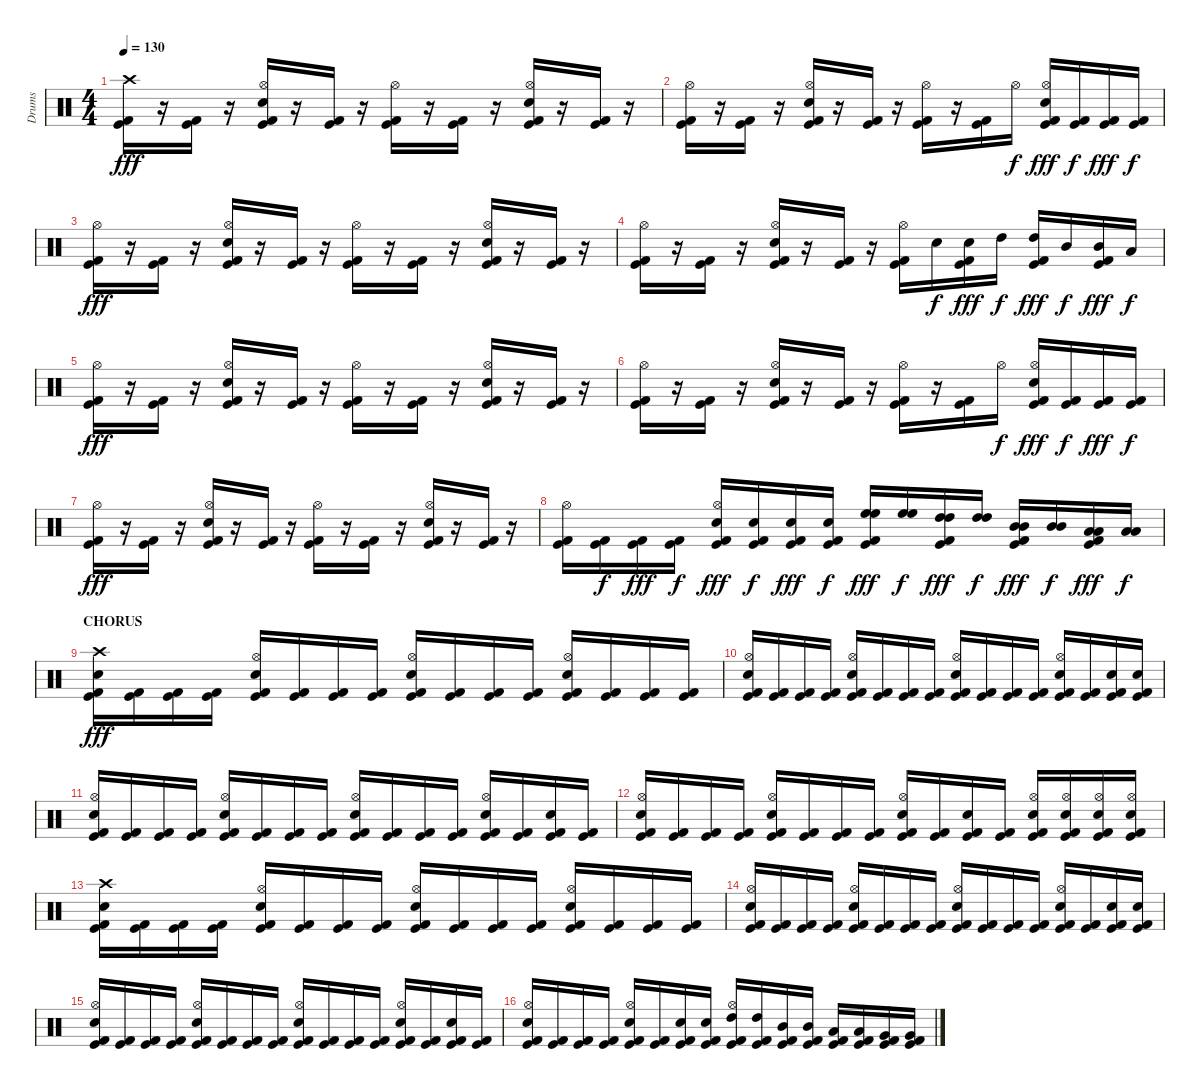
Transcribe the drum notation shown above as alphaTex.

\track ("Drums" "Drums") {instrument percussion}
\staff {score}
\articulation defaults
\ts (4 4)
\tempo 130
\clef neutral
\ks c
("Crash high (hit)" "Kick (hit)" "Kick (hit) 2").16{dy fff} r.16 ("Kick (hit)" "Kick (hit) 2").16 r.16 ("Hi-Hat (open)" "Electric Snare (hit)" "Kick (hit)" "Kick (hit) 2").16 r.16 ("Kick (hit)" "Kick (hit) 2").16 r.16 ("Hi-Hat (open)" "Kick (hit)" "Kick (hit) 2").16 r.16 ("Kick (hit)" "Kick (hit) 2").16 r.16 ("Hi-Hat (open)" "Electric Snare (hit)" "Kick (hit)" "Kick (hit) 2").16 r.16 ("Kick (hit)" "Kick (hit) 2").16 r.16 |
("Hi-Hat (open)" "Kick (hit)" "Kick (hit) 2").16 r.16 ("Kick (hit)" "Kick (hit) 2").16 r.16 ("Hi-Hat (open)" "Electric Snare (hit)" "Kick (hit)" "Kick (hit) 2").16 r.16 ("Kick (hit)" "Kick (hit) 2").16 r.16 ("Hi-Hat (open)" "Kick (hit)" "Kick (hit) 2").16 r.16 ("Kick (hit)" "Kick (hit) 2").16 "Hi-Hat (open)".16{dy f} ("Hi-Hat (open)" "Electric Snare (hit)" "Kick (hit)" "Kick (hit) 2").16{dy fff} ("Kick (hit)" "Kick (hit) 2").16{dy f} ("Kick (hit)" "Kick (hit) 2").16{dy fff} ("Kick (hit)" "Kick (hit) 2").16{dy f} |
("Hi-Hat (open)" "Kick (hit)" "Kick (hit) 2").16{dy fff} r.16 ("Kick (hit)" "Kick (hit) 2").16 r.16 ("Hi-Hat (open)" "Electric Snare (hit)" "Kick (hit)" "Kick (hit) 2").16 r.16 ("Kick (hit)" "Kick (hit) 2").16 r.16 ("Hi-Hat (open)" "Kick (hit)" "Kick (hit) 2").16 r.16 ("Kick (hit)" "Kick (hit) 2").16 r.16 ("Hi-Hat (open)" "Electric Snare (hit)" "Kick (hit)" "Kick (hit) 2").16 r.16 ("Kick (hit)" "Kick (hit) 2").16 r.16 |
("Hi-Hat (open)" "Kick (hit)" "Kick (hit) 2").16 r.16 ("Kick (hit)" "Kick (hit) 2").16 r.16 ("Hi-Hat (open)" "Electric Snare (hit)" "Kick (hit)" "Kick (hit) 2").16 r.16 ("Kick (hit)" "Kick (hit) 2").16 r.16 ("Hi-Hat (open)" "Kick (hit)" "Kick (hit) 2").16 "Electric Snare (hit)".16{dy f} ("Electric Snare (hit)" "Kick (hit)" "Kick (hit) 2").16{dy fff} "High Tom (hit)".16{dy f} ("High Tom (hit)" "Kick (hit)" "Kick (hit) 2").16{dy fff} "Mid Tom (hit)".16{dy f} ("Mid Tom (hit)" "Kick (hit)" "Kick (hit) 2").16{dy fff} "Low Tom (hit)".16{dy f} |
("Hi-Hat (open)" "Kick (hit)" "Kick (hit) 2").16{dy fff} r.16 ("Kick (hit)" "Kick (hit) 2").16 r.16 ("Hi-Hat (open)" "Electric Snare (hit)" "Kick (hit)" "Kick (hit) 2").16 r.16 ("Kick (hit)" "Kick (hit) 2").16 r.16 ("Hi-Hat (open)" "Kick (hit)" "Kick (hit) 2").16 r.16 ("Kick (hit)" "Kick (hit) 2").16 r.16 ("Hi-Hat (open)" "Electric Snare (hit)" "Kick (hit)" "Kick (hit) 2").16 r.16 ("Kick (hit)" "Kick (hit) 2").16 r.16 |
("Hi-Hat (open)" "Kick (hit)" "Kick (hit) 2").16 r.16 ("Kick (hit)" "Kick (hit) 2").16 r.16 ("Hi-Hat (open)" "Electric Snare (hit)" "Kick (hit)" "Kick (hit) 2").16 r.16 ("Kick (hit)" "Kick (hit) 2").16 r.16 ("Hi-Hat (open)" "Kick (hit)" "Kick (hit) 2").16 r.16 ("Kick (hit)" "Kick (hit) 2").16 "Hi-Hat (open)".16{dy f} ("Hi-Hat (open)" "Electric Snare (hit)" "Kick (hit)" "Kick (hit) 2").16{dy fff} ("Kick (hit)" "Kick (hit) 2").16{dy f} ("Kick (hit)" "Kick (hit) 2").16{dy fff} ("Kick (hit)" "Kick (hit) 2").16{dy f} |
("Hi-Hat (open)" "Kick (hit)" "Kick (hit) 2").16{dy fff} r.16 ("Kick (hit)" "Kick (hit) 2").16 r.16 ("Hi-Hat (open)" "Electric Snare (hit)" "Kick (hit)" "Kick (hit) 2").16 r.16 ("Kick (hit)" "Kick (hit) 2").16 r.16 ("Hi-Hat (open)" "Kick (hit)" "Kick (hit) 2").16 r.16 ("Kick (hit)" "Kick (hit) 2").16 r.16 ("Hi-Hat (open)" "Electric Snare (hit)" "Kick (hit)" "Kick (hit) 2").16 r.16 ("Kick (hit)" "Kick (hit) 2").16 r.16 |
("Hi-Hat (open)" "Kick (hit)" "Kick (hit) 2").16 ("Kick (hit)" "Kick (hit) 2").16{dy f} ("Kick (hit)" "Kick (hit) 2").16{dy fff} ("Kick (hit)" "Kick (hit) 2").16{dy f} ("Hi-Hat (open)" "Electric Snare (hit)" "Kick (hit)" "Kick (hit) 2").16{dy fff} ("Electric Snare (hit)" "Kick (hit)" "Kick (hit) 2").16{dy f} ("Electric Snare (hit)" "Kick (hit)" "Kick (hit) 2").16{dy fff} ("Electric Snare (hit)" "Kick (hit)" "Kick (hit) 2").16{dy f} ("High Floor Tom (hit)" "High Floor Tom (hit)" "Kick (hit)" "Kick (hit) 2").16{dy fff} ("High Floor Tom (hit)" "High Floor Tom (hit)").16{dy f} ("High Tom (hit)" "High Tom (hit)" "Kick (hit)" "Kick (hit) 2").16{dy fff} ("High Tom (hit)" "High Tom (hit)").16{dy f} ("Mid Tom (hit)" "Mid Tom (hit)" "Kick (hit)" "Kick (hit) 2").16{dy fff} ("Mid Tom (hit)" "Mid Tom (hit)").16{dy f} ("Low Tom (hit)" "Low Tom (hit)" "Kick (hit)" "Kick (hit) 2").16{dy fff} ("Low Tom (hit)" "Low Tom (hit)").16{dy f} |
\section ("" "CHORUS")
("Crash high (hit)" "Electric Snare (hit)" "Kick (hit)" "Kick (hit) 2").16{dy fff} ("Kick (hit)" "Kick (hit) 2").16 ("Kick (hit)" "Kick (hit) 2").16 ("Kick (hit)" "Kick (hit) 2").16 ("Hi-Hat (open)" "Electric Snare (hit)" "Kick (hit)" "Kick (hit) 2").16 ("Kick (hit)" "Kick (hit) 2").16 ("Kick (hit)" "Kick (hit) 2").16 ("Kick (hit)" "Kick (hit) 2").16 ("Hi-Hat (open)" "Electric Snare (hit)" "Kick (hit)" "Kick (hit) 2").16 ("Kick (hit)" "Kick (hit) 2").16 ("Kick (hit)" "Kick (hit) 2").16 ("Kick (hit)" "Kick (hit) 2").16 ("Hi-Hat (open)" "Electric Snare (hit)" "Kick (hit)" "Kick (hit) 2").16 ("Kick (hit)" "Kick (hit) 2").16 ("Kick (hit)" "Kick (hit) 2").16 ("Kick (hit)" "Kick (hit) 2").16 |
("Hi-Hat (open)" "Electric Snare (hit)" "Kick (hit)" "Kick (hit) 2").16 ("Kick (hit)" "Kick (hit) 2").16 ("Kick (hit)" "Kick (hit) 2").16 ("Kick (hit)" "Kick (hit) 2").16 ("Hi-Hat (open)" "Electric Snare (hit)" "Kick (hit)" "Kick (hit) 2").16 ("Kick (hit)" "Kick (hit) 2").16 ("Kick (hit)" "Kick (hit) 2").16 ("Kick (hit)" "Kick (hit) 2").16 ("Hi-Hat (open)" "Electric Snare (hit)" "Kick (hit)" "Kick (hit) 2").16 ("Kick (hit)" "Kick (hit) 2").16 ("Kick (hit)" "Kick (hit) 2").16 ("Kick (hit)" "Kick (hit) 2").16 ("Hi-Hat (open)" "Electric Snare (hit)" "Kick (hit)" "Kick (hit) 2").16 ("Kick (hit)" "Kick (hit) 2").16 ("Electric Snare (hit)" "Kick (hit)" "Kick (hit) 2").16 ("Electric Snare (hit)" "Kick (hit)" "Kick (hit) 2").16 |
("Hi-Hat (open)" "Electric Snare (hit)" "Kick (hit)" "Kick (hit) 2").16 ("Kick (hit)" "Kick (hit) 2").16 ("Kick (hit)" "Kick (hit) 2").16 ("Kick (hit)" "Kick (hit) 2").16 ("Hi-Hat (open)" "Electric Snare (hit)" "Kick (hit)" "Kick (hit) 2").16 ("Kick (hit)" "Kick (hit) 2").16 ("Kick (hit)" "Kick (hit) 2").16 ("Kick (hit)" "Kick (hit) 2").16 ("Hi-Hat (open)" "Electric Snare (hit)" "Kick (hit)" "Kick (hit) 2").16 ("Kick (hit)" "Kick (hit) 2").16 ("Kick (hit)" "Kick (hit) 2").16 ("Kick (hit)" "Kick (hit) 2").16 ("Hi-Hat (open)" "Electric Snare (hit)" "Kick (hit)" "Kick (hit) 2").16 ("Kick (hit)" "Kick (hit) 2").16 ("Electric Snare (hit)" "Kick (hit)" "Kick (hit) 2").16 ("Kick (hit)" "Kick (hit) 2").16 |
("Hi-Hat (open)" "Electric Snare (hit)" "Kick (hit)" "Kick (hit) 2").16 ("Kick (hit)" "Kick (hit) 2").16 ("Kick (hit)" "Kick (hit) 2").16 ("Kick (hit)" "Kick (hit) 2").16 ("Hi-Hat (open)" "Electric Snare (hit)" "Kick (hit)" "Kick (hit) 2").16 ("Kick (hit)" "Kick (hit) 2").16 ("Kick (hit)" "Kick (hit) 2").16 ("Kick (hit)" "Kick (hit) 2").16 ("Hi-Hat (open)" "Electric Snare (hit)" "Kick (hit)" "Kick (hit) 2").16 ("Kick (hit)" "Kick (hit) 2").16 ("Electric Snare (hit)" "Kick (hit)" "Kick (hit) 2").16 ("Kick (hit)" "Kick (hit) 2").16 ("Hi-Hat (open)" "Electric Snare (hit)" "Kick (hit)" "Kick (hit) 2").16 ("Hi-Hat (open)" "Electric Snare (hit)" "Kick (hit)" "Kick (hit) 2").16 ("Hi-Hat (open)" "Electric Snare (hit)" "Kick (hit)" "Kick (hit) 2").16 ("Hi-Hat (open)" "Electric Snare (hit)" "Kick (hit)" "Kick (hit) 2").16 |
("Crash high (hit)" "Electric Snare (hit)" "Kick (hit)" "Kick (hit) 2").16 ("Kick (hit)" "Kick (hit) 2").16 ("Kick (hit)" "Kick (hit) 2").16 ("Kick (hit)" "Kick (hit) 2").16 ("Hi-Hat (open)" "Electric Snare (hit)" "Kick (hit)" "Kick (hit) 2").16 ("Kick (hit)" "Kick (hit) 2").16 ("Kick (hit)" "Kick (hit) 2").16 ("Kick (hit)" "Kick (hit) 2").16 ("Hi-Hat (open)" "Electric Snare (hit)" "Kick (hit)" "Kick (hit) 2").16 ("Kick (hit)" "Kick (hit) 2").16 ("Kick (hit)" "Kick (hit) 2").16 ("Kick (hit)" "Kick (hit) 2").16 ("Hi-Hat (open)" "Electric Snare (hit)" "Kick (hit)" "Kick (hit) 2").16 ("Kick (hit)" "Kick (hit) 2").16 ("Kick (hit)" "Kick (hit) 2").16 ("Kick (hit)" "Kick (hit) 2").16 |
("Hi-Hat (open)" "Electric Snare (hit)" "Kick (hit)" "Kick (hit) 2").16 ("Kick (hit)" "Kick (hit) 2").16 ("Kick (hit)" "Kick (hit) 2").16 ("Kick (hit)" "Kick (hit) 2").16 ("Hi-Hat (open)" "Electric Snare (hit)" "Kick (hit)" "Kick (hit) 2").16 ("Kick (hit)" "Kick (hit) 2").16 ("Kick (hit)" "Kick (hit) 2").16 ("Kick (hit)" "Kick (hit) 2").16 ("Hi-Hat (open)" "Electric Snare (hit)" "Kick (hit)" "Kick (hit) 2").16 ("Kick (hit)" "Kick (hit) 2").16 ("Kick (hit)" "Kick (hit) 2").16 ("Kick (hit)" "Kick (hit) 2").16 ("Hi-Hat (open)" "Electric Snare (hit)" "Kick (hit)" "Kick (hit) 2").16 ("Kick (hit)" "Kick (hit) 2").16 ("Electric Snare (hit)" "Kick (hit)" "Kick (hit) 2").16 ("Electric Snare (hit)" "Kick (hit)" "Kick (hit) 2").16 |
("Hi-Hat (open)" "Electric Snare (hit)" "Kick (hit)" "Kick (hit) 2").16 ("Kick (hit)" "Kick (hit) 2").16 ("Kick (hit)" "Kick (hit) 2").16 ("Kick (hit)" "Kick (hit) 2").16 ("Hi-Hat (open)" "Electric Snare (hit)" "Kick (hit)" "Kick (hit) 2").16 ("Kick (hit)" "Kick (hit) 2").16 ("Kick (hit)" "Kick (hit) 2").16 ("Kick (hit)" "Kick (hit) 2").16 ("Hi-Hat (open)" "Electric Snare (hit)" "Kick (hit)" "Kick (hit) 2").16 ("Kick (hit)" "Kick (hit) 2").16 ("Kick (hit)" "Kick (hit) 2").16 ("Kick (hit)" "Kick (hit) 2").16 ("Hi-Hat (open)" "Electric Snare (hit)" "Kick (hit)" "Kick (hit) 2").16 ("Kick (hit)" "Kick (hit) 2").16 ("Electric Snare (hit)" "Kick (hit)" "Kick (hit) 2").16 ("Kick (hit)" "Kick (hit) 2").16 |
("Hi-Hat (open)" "Electric Snare (hit)" "Kick (hit)" "Kick (hit) 2").16 ("Kick (hit)" "Kick (hit) 2").16 ("Kick (hit)" "Kick (hit) 2").16 ("Kick (hit)" "Kick (hit) 2").16 ("Hi-Hat (open)" "Electric Snare (hit)" "Kick (hit)" "Kick (hit) 2").16 ("Kick (hit)" "Kick (hit) 2").16 ("Electric Snare (hit)" "Kick (hit)" "Kick (hit) 2").16 ("Electric Snare (hit)" "Kick (hit)" "Kick (hit) 2").16 ("Hi-Hat (open)" "High Tom (hit)" "Kick (hit)" "Kick (hit) 2").16 ("High Tom (hit)" "Kick (hit)" "Kick (hit) 2").16 ("Mid Tom (hit)" "Kick (hit)" "Kick (hit) 2").16 ("Mid Tom (hit)" "Kick (hit)" "Kick (hit) 2").16 ("Low Tom (hit)" "Kick (hit)" "Kick (hit) 2").16 ("Low Tom (hit)" "Kick (hit)" "Kick (hit) 2").16 ("Very Low Tom (hit)" "Kick (hit)" "Kick (hit) 2").16 ("Very Low Tom (hit)" "Kick (hit)" "Kick (hit) 2").16
